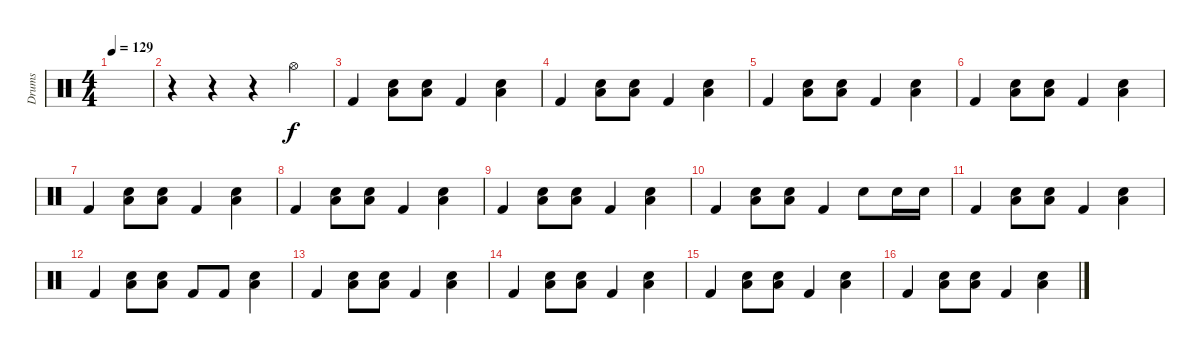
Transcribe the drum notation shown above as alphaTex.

\track ("Drums" "Drums") {instrument percussion}
\staff {score}
\articulation defaults
\ts (4 4)
\tempo 129
\clef neutral
\ks c
|
r.4 r.4 r.4 "Hi-Hat (open)".4 |
"Kick (hit) 2".4 ("Snare (hit) 2" "Low Floor Tom (hit)").8 ("Snare (hit) 2" "Low Floor Tom (hit)").8 "Kick (hit) 2".4 ("Snare (hit) 2" "Low Floor Tom (hit)").4 |
"Kick (hit) 2".4 ("Snare (hit) 2" "Low Floor Tom (hit)").8 ("Snare (hit) 2" "Low Floor Tom (hit)").8 "Kick (hit) 2".4 ("Snare (hit) 2" "Low Floor Tom (hit)").4 |
"Kick (hit) 2".4 ("Snare (hit) 2" "Low Floor Tom (hit)").8 ("Snare (hit) 2" "Low Floor Tom (hit)").8 "Kick (hit) 2".4 ("Snare (hit) 2" "Low Floor Tom (hit)").4 |
"Kick (hit) 2".4 ("Snare (hit) 2" "Low Floor Tom (hit)").8 ("Snare (hit) 2" "Low Floor Tom (hit)").8 "Kick (hit) 2".4 ("Snare (hit) 2" "Low Floor Tom (hit)").4 |
"Kick (hit) 2".4 ("Snare (hit) 2" "Low Floor Tom (hit)").8 ("Snare (hit) 2" "Low Floor Tom (hit)").8 "Kick (hit) 2".4 ("Snare (hit) 2" "Low Floor Tom (hit)").4 |
"Kick (hit) 2".4 ("Snare (hit) 2" "Low Floor Tom (hit)").8 ("Snare (hit) 2" "Low Floor Tom (hit)").8 "Kick (hit) 2".4 ("Snare (hit) 2" "Low Floor Tom (hit)").4 |
"Kick (hit) 2".4 ("Snare (hit) 2" "Low Floor Tom (hit)").8 ("Snare (hit) 2" "Low Floor Tom (hit)").8 "Kick (hit) 2".4 ("Snare (hit) 2" "Low Floor Tom (hit)").4 |
"Kick (hit) 2".4 ("Snare (hit) 2" "Low Floor Tom (hit)").8 ("Snare (hit) 2" "Low Floor Tom (hit)").8 "Kick (hit) 2".4 "Snare (hit) 2".8 "Snare (hit) 2".16 "Snare (hit) 2".16 |
"Kick (hit) 2".4 ("Snare (hit) 2" "Low Floor Tom (hit)").8 ("Snare (hit) 2" "Low Floor Tom (hit)").8 "Kick (hit) 2".4 ("Snare (hit) 2" "Low Floor Tom (hit)").4 |
"Kick (hit) 2".4 ("Snare (hit) 2" "Low Floor Tom (hit)").8 ("Snare (hit) 2" "Low Floor Tom (hit)").8 "Kick (hit) 2".8 "Kick (hit) 2".8 ("Snare (hit) 2" "Low Floor Tom (hit)").4 |
"Kick (hit) 2".4 ("Snare (hit) 2" "Low Floor Tom (hit)").8 ("Snare (hit) 2" "Low Floor Tom (hit)").8 "Kick (hit) 2".4 ("Snare (hit) 2" "Low Floor Tom (hit)").4 |
"Kick (hit) 2".4 ("Snare (hit) 2" "Low Floor Tom (hit)").8 ("Snare (hit) 2" "Low Floor Tom (hit)").8 "Kick (hit) 2".4 ("Snare (hit) 2" "Low Floor Tom (hit)").4 |
"Kick (hit) 2".4 ("Snare (hit) 2" "Low Floor Tom (hit)").8 ("Snare (hit) 2" "Low Floor Tom (hit)").8 "Kick (hit) 2".4 ("Snare (hit) 2" "Low Floor Tom (hit)").4 |
"Kick (hit) 2".4 ("Snare (hit) 2" "Low Floor Tom (hit)").8 ("Snare (hit) 2" "Low Floor Tom (hit)").8 "Kick (hit) 2".4 ("Snare (hit) 2" "Low Floor Tom (hit)").4
